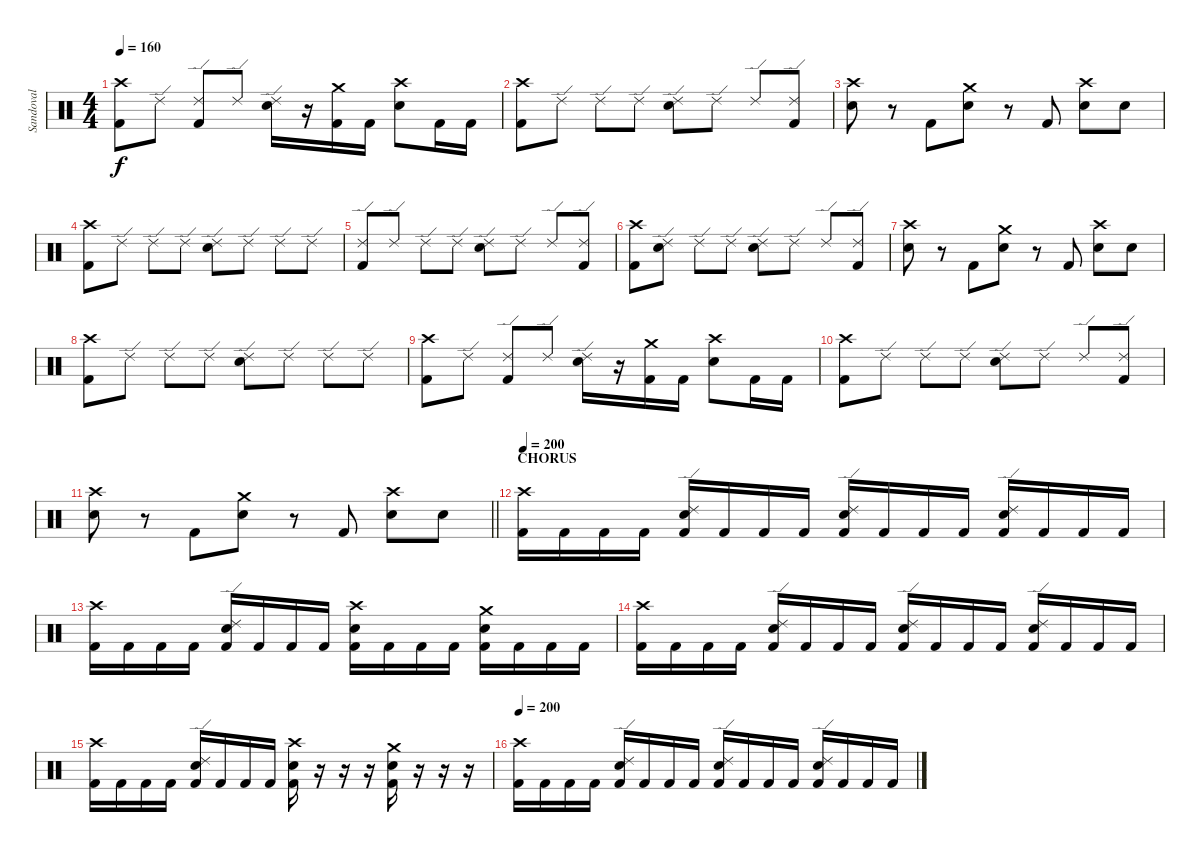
\track ("Sandoval" "Sandoval") {instrument percussion}
\staff {score}
\articulation defaults
\ts (4 4)
\tempo 160
\clef neutral
\ks c
("Crash high (hit)" "Kick (hit) 2").8{dy f} "Ride (edge) 2".8 ("Ride (edge) 2" "Kick (hit) 2").8 "Ride (edge) 2".8 ("Ride (edge) 2" "Electric Snare (hit)").16 r.16 ("Crash medium (hit)" "Kick (hit) 2").16 "Kick (hit) 2".16 ("Crash high (hit)" "Electric Snare (hit)").8 "Kick (hit) 2".16 "Kick (hit) 2".16 |
("Crash high (hit)" "Kick (hit) 2").8 "Ride (edge) 2".8 "Ride (edge) 2".8 "Ride (edge) 2".8 ("Ride (edge) 2" "Electric Snare (hit)").8 "Ride (edge) 2".8 "Ride (edge) 2".8 ("Ride (edge) 2" "Kick (hit) 2").8 |
("Crash high (hit)" "Electric Snare (hit)").8 r.8 "Kick (hit) 2".8 ("Crash medium (hit)" "Electric Snare (hit)").8 r.8 "Kick (hit) 2".8 ("Crash high (hit)" "Electric Snare (hit)").8 "Electric Snare (hit)".8 |
("Crash high (hit)" "Kick (hit) 2").8 "Ride (edge) 2".8 "Ride (edge) 2".8 "Ride (edge) 2".8 ("Ride (edge) 2" "Electric Snare (hit)").8 "Ride (edge) 2".8 "Ride (edge) 2".8 "Ride (edge) 2".8 |
("Ride (edge) 2" "Kick (hit) 2").8 "Ride (edge) 2".8 "Ride (edge) 2".8 "Ride (edge) 2".8 ("Ride (edge) 2" "Electric Snare (hit)").8 "Ride (edge) 2".8 "Ride (edge) 2".8 ("Ride (edge) 2" "Kick (hit) 2").8 |
("Crash high (hit)" "Kick (hit) 2").8 ("Ride (edge) 2" "Electric Snare (hit)").8 "Ride (edge) 2".8 "Ride (edge) 2".8 ("Ride (edge) 2" "Electric Snare (hit)").8 "Ride (edge) 2".8 "Ride (edge) 2".8 ("Ride (edge) 2" "Kick (hit) 2").8 |
("Crash high (hit)" "Electric Snare (hit)").8 r.8 "Kick (hit) 2".8 ("Crash medium (hit)" "Electric Snare (hit)").8 r.8 "Kick (hit) 2".8 ("Crash high (hit)" "Electric Snare (hit)").8 "Electric Snare (hit)".8 |
("Crash high (hit)" "Kick (hit) 2").8 "Ride (edge) 2".8 "Ride (edge) 2".8 "Ride (edge) 2".8 ("Ride (edge) 2" "Electric Snare (hit)").8 "Ride (edge) 2".8 "Ride (edge) 2".8 "Ride (edge) 2".8 |
("Crash high (hit)" "Kick (hit) 2").8 "Ride (edge) 2".8 ("Ride (edge) 2" "Kick (hit) 2").8 "Ride (edge) 2".8 ("Ride (edge) 2" "Electric Snare (hit)").16 r.16 ("Crash medium (hit)" "Kick (hit) 2").16 "Kick (hit) 2".16 ("Crash high (hit)" "Electric Snare (hit)").8 "Kick (hit) 2".16 "Kick (hit) 2".16 |
("Crash high (hit)" "Kick (hit) 2").8 "Ride (edge) 2".8 "Ride (edge) 2".8 "Ride (edge) 2".8 ("Ride (edge) 2" "Electric Snare (hit)").8 "Ride (edge) 2".8 "Ride (edge) 2".8 ("Ride (edge) 2" "Kick (hit) 2").8 |
\barLineRight lightlight
("Crash high (hit)" "Electric Snare (hit)").8 r.8 "Kick (hit) 2".8 ("Crash medium (hit)" "Electric Snare (hit)").8 r.8 "Kick (hit) 2".8 ("Crash high (hit)" "Electric Snare (hit)").8 "Electric Snare (hit)".8 |
\section ("" "CHORUS")
\tempo 200
("Crash high (hit)" "Kick (hit) 2").16 "Kick (hit) 2".16 "Kick (hit) 2".16 "Kick (hit) 2".16 ("Ride (edge) 2" "Electric Snare (hit)" "Kick (hit) 2").16 "Kick (hit) 2".16 "Kick (hit) 2".16 "Kick (hit) 2".16 ("Ride (edge) 2" "Electric Snare (hit)" "Kick (hit) 2").16 "Kick (hit) 2".16 "Kick (hit) 2".16 "Kick (hit) 2".16 ("Ride (edge) 2" "Electric Snare (hit)" "Kick (hit) 2").16 "Kick (hit) 2".16 "Kick (hit) 2".16 "Kick (hit) 2".16 |
("Crash high (hit)" "Kick (hit) 2").16 "Kick (hit) 2".16 "Kick (hit) 2".16 "Kick (hit) 2".16 ("Ride (edge) 2" "Electric Snare (hit)" "Kick (hit) 2").16 "Kick (hit) 2".16 "Kick (hit) 2".16 "Kick (hit) 2".16 ("Crash high (hit)" "Electric Snare (hit)" "Kick (hit) 2").16 "Kick (hit) 2".16 "Kick (hit) 2".16 "Kick (hit) 2".16 ("Crash medium (hit)" "Electric Snare (hit)" "Kick (hit) 2").16 "Kick (hit) 2".16 "Kick (hit) 2".16 "Kick (hit) 2".16 |
("Crash high (hit)" "Kick (hit) 2").16 "Kick (hit) 2".16 "Kick (hit) 2".16 "Kick (hit) 2".16 ("Ride (edge) 2" "Electric Snare (hit)" "Kick (hit) 2").16 "Kick (hit) 2".16 "Kick (hit) 2".16 "Kick (hit) 2".16 ("Ride (edge) 2" "Electric Snare (hit)" "Kick (hit) 2").16 "Kick (hit) 2".16 "Kick (hit) 2".16 "Kick (hit) 2".16 ("Ride (edge) 2" "Electric Snare (hit)" "Kick (hit) 2").16 "Kick (hit) 2".16 "Kick (hit) 2".16 "Kick (hit) 2".16 |
("Crash high (hit)" "Kick (hit) 2").16 "Kick (hit) 2".16 "Kick (hit) 2".16 "Kick (hit) 2".16 ("Ride (edge) 2" "Electric Snare (hit)" "Kick (hit) 2").16 "Kick (hit) 2".16 "Kick (hit) 2".16 "Kick (hit) 2".16 ("Crash high (hit)" "Electric Snare (hit)" "Kick (hit) 2").16 r.16 r.16 r.16 ("Crash medium (hit)" "Electric Snare (hit)" "Kick (hit) 2").16 r.16 r.16 r.16 |
\tempo 200
("Crash high (hit)" "Kick (hit) 2").16 "Kick (hit) 2".16 "Kick (hit) 2".16 "Kick (hit) 2".16 ("Ride (edge) 2" "Electric Snare (hit)" "Kick (hit) 2").16 "Kick (hit) 2".16 "Kick (hit) 2".16 "Kick (hit) 2".16 ("Ride (edge) 2" "Electric Snare (hit)" "Kick (hit) 2").16 "Kick (hit) 2".16 "Kick (hit) 2".16 "Kick (hit) 2".16 ("Ride (edge) 2" "Electric Snare (hit)" "Kick (hit) 2").16 "Kick (hit) 2".16 "Kick (hit) 2".16 "Kick (hit) 2".16
